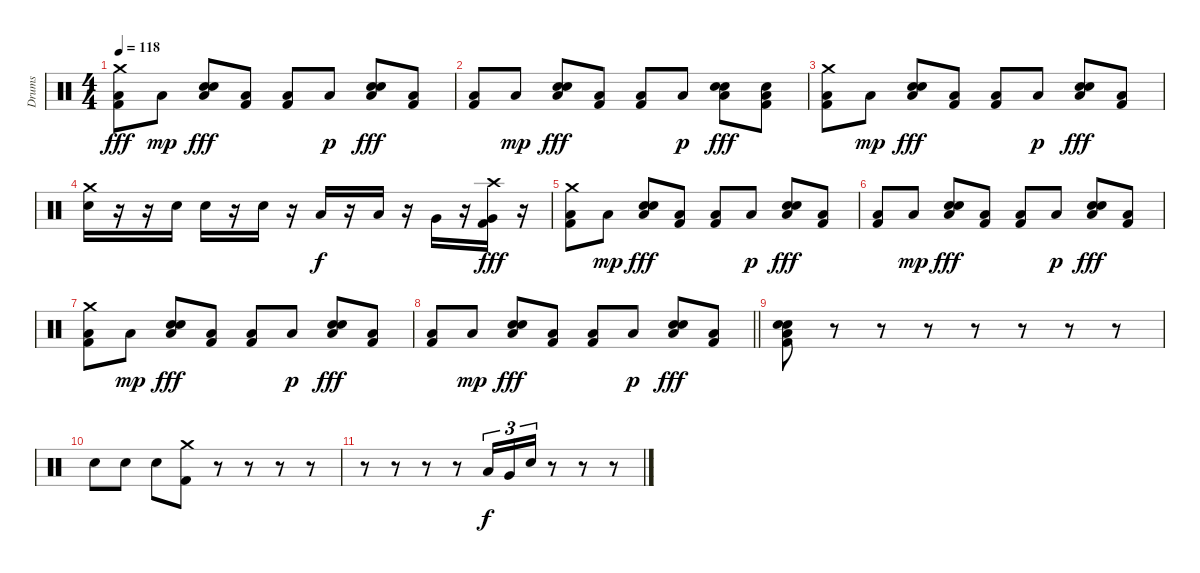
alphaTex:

\track ("Drums" "Drums") {instrument percussion}
\staff {score}
\articulation defaults
\ts (4 4)
\tempo 118
\clef neutral
\ks c
("Crash medium (hit)" "Low Floor Tom (hit)" "Kick (hit) 2").8{dy fff} "Low Floor Tom (hit)".8{dy mp} ("Hand Clap (hit)" "Snare (hit) 2" "Low Floor Tom (hit)").8{dy fff} ("Low Floor Tom (hit)" "Kick (hit) 2").8 ("Low Floor Tom (hit)" "Kick (hit) 2").8 "Low Floor Tom (hit)".8{dy p} ("Hand Clap (hit)" "Snare (hit) 2" "Low Floor Tom (hit)").8{dy fff} ("Low Floor Tom (hit)" "Kick (hit) 2").8 |
("Low Floor Tom (hit)" "Kick (hit) 2").8 "Low Floor Tom (hit)".8{dy mp} ("Hand Clap (hit)" "Snare (hit) 2" "Low Floor Tom (hit)").8{dy fff} ("Low Floor Tom (hit)" "Kick (hit) 2").8 ("Low Floor Tom (hit)" "Kick (hit) 2").8 "Low Floor Tom (hit)".8{dy p} ("Hand Clap (hit)" "Snare (hit) 2" "Low Floor Tom (hit)").8{dy fff} ("Snare (hit) 2" "Low Floor Tom (hit)" "Kick (hit) 2").8 |
("Crash medium (hit)" "Low Floor Tom (hit)" "Kick (hit) 2").8 "Low Floor Tom (hit)".8{dy mp} ("Hand Clap (hit)" "Snare (hit) 2" "Low Floor Tom (hit)").8{dy fff} ("Low Floor Tom (hit)" "Kick (hit) 2").8 ("Low Floor Tom (hit)" "Kick (hit) 2").8 "Low Floor Tom (hit)".8{dy p} ("Hand Clap (hit)" "Snare (hit) 2" "Low Floor Tom (hit)").8{dy fff} ("Low Floor Tom (hit)" "Kick (hit) 2").8 |
("Crash medium (hit)" "Snare (hit) 2").16 r.16 r.16 "Snare (hit) 2".16 "Snare (hit) 2".16 r.16 "Snare (hit) 2".16 r.16 "Low Tom (hit)".16{dy f} r.16 "Low Tom (hit)".16 r.16 "Very Low Tom (hit)".16 r.16 ("Crash high (hit)" "Very Low Tom (hit)" "Kick (hit) 2").16{dy fff} r.16 |
("Crash medium (hit)" "Low Floor Tom (hit)" "Kick (hit) 2").8 "Low Floor Tom (hit)".8{dy mp} ("Hand Clap (hit)" "Snare (hit) 2" "Low Floor Tom (hit)").8{dy fff} ("Low Floor Tom (hit)" "Kick (hit) 2").8 ("Low Floor Tom (hit)" "Kick (hit) 2").8 "Low Floor Tom (hit)".8{dy p} ("Hand Clap (hit)" "Snare (hit) 2" "Low Floor Tom (hit)").8{dy fff} ("Low Floor Tom (hit)" "Kick (hit) 2").8 |
("Low Floor Tom (hit)" "Kick (hit) 2").8 "Low Floor Tom (hit)".8{dy mp} ("Hand Clap (hit)" "Snare (hit) 2" "Low Floor Tom (hit)").8{dy fff} ("Low Floor Tom (hit)" "Kick (hit) 2").8 ("Low Floor Tom (hit)" "Kick (hit) 2").8 "Low Floor Tom (hit)".8{dy p} ("Hand Clap (hit)" "Snare (hit) 2" "Low Floor Tom (hit)").8{dy fff} ("Low Floor Tom (hit)" "Kick (hit) 2").8 |
("Crash medium (hit)" "Low Floor Tom (hit)" "Kick (hit) 2").8 "Low Floor Tom (hit)".8{dy mp} ("Hand Clap (hit)" "Snare (hit) 2" "Low Floor Tom (hit)").8{dy fff} ("Low Floor Tom (hit)" "Kick (hit) 2").8 ("Low Floor Tom (hit)" "Kick (hit) 2").8 "Low Floor Tom (hit)".8{dy p} ("Hand Clap (hit)" "Snare (hit) 2" "Low Floor Tom (hit)").8{dy fff} ("Low Floor Tom (hit)" "Kick (hit) 2").8 |
\barLineRight lightlight
("Low Floor Tom (hit)" "Kick (hit) 2").8 "Low Floor Tom (hit)".8{dy mp} ("Hand Clap (hit)" "Snare (hit) 2" "Low Floor Tom (hit)").8{dy fff} ("Low Floor Tom (hit)" "Kick (hit) 2").8 ("Low Floor Tom (hit)" "Kick (hit) 2").8 "Low Floor Tom (hit)".8{dy p} ("Hand Clap (hit)" "Snare (hit) 2" "Low Floor Tom (hit)").8{dy fff} ("Low Floor Tom (hit)" "Kick (hit) 2").8 |
("Snare (hit) 2" "Snare (hit) 2" "Low Floor Tom (hit)" "Kick (hit) 2").8 r.8 r.8 r.8 r.8 r.8 r.8 r.8 |
"Snare (hit) 2".8 "Snare (hit) 2".8 "Snare (hit) 2".8 ("Crash medium (hit)" "Kick (hit) 2").8 r.8 r.8 r.8 r.8 |
r.8 r.8 r.8 r.8 "Low Tom (hit)".16{tu (3 2) dy f} "Very Low Tom (hit)".16{tu (3 2)} "Snare (hit)".16{tu (3 2)} r.8 r.8 r.8
